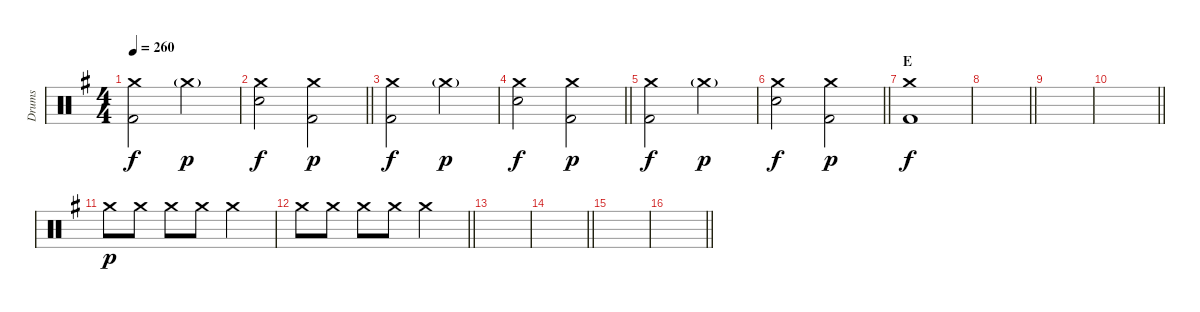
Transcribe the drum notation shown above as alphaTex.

\track ("Drums" "Drums") {instrument percussion}
\staff {score}
\articulation defaults
\ts (4 4)
\tempo 260
\clef neutral
\ks eminor
("Crash medium (hit)" "Kick (hit) 2").2{dy f} "Crash medium (hit)"{g}.2{dy p} |
\barLineRight lightlight
("Crash medium (hit)" "Electric Snare (hit)").2{dy f} ("Crash medium (hit)" "Kick (hit) 2").2{dy p} |
("Crash medium (hit)" "Kick (hit) 2").2{dy f} "Crash medium (hit)"{g}.2{dy p} |
\barLineRight lightlight
("Crash medium (hit)" "Electric Snare (hit)").2{dy f} ("Crash medium (hit)" "Kick (hit) 2").2{dy p} |
("Crash medium (hit)" "Kick (hit) 2").2{dy f} "Crash medium (hit)"{g}.2{dy p} |
\barLineRight lightlight
("Crash medium (hit)" "Electric Snare (hit)").2{dy f} ("Crash medium (hit)" "Kick (hit) 2").2{dy p} |
\section ("" "E")
("Crash medium (hit)" "Kick (hit) 2").1{dy f} |
\barLineRight lightlight
|
|
\barLineRight lightlight
|
"Crash medium (hit)".8{dy p} "Crash medium (hit)".8 "Crash medium (hit)".8 "Crash medium (hit)".8 "Crash medium (hit)".2 |
\barLineRight lightlight "Crash medium (hit)".8 "Crash medium (hit)".8 "Crash medium (hit)".8 "Crash medium (hit)".8 "Crash medium (hit)".2
|
|
\barLineRight lightlight
|
|
\barLineRight lightlight
